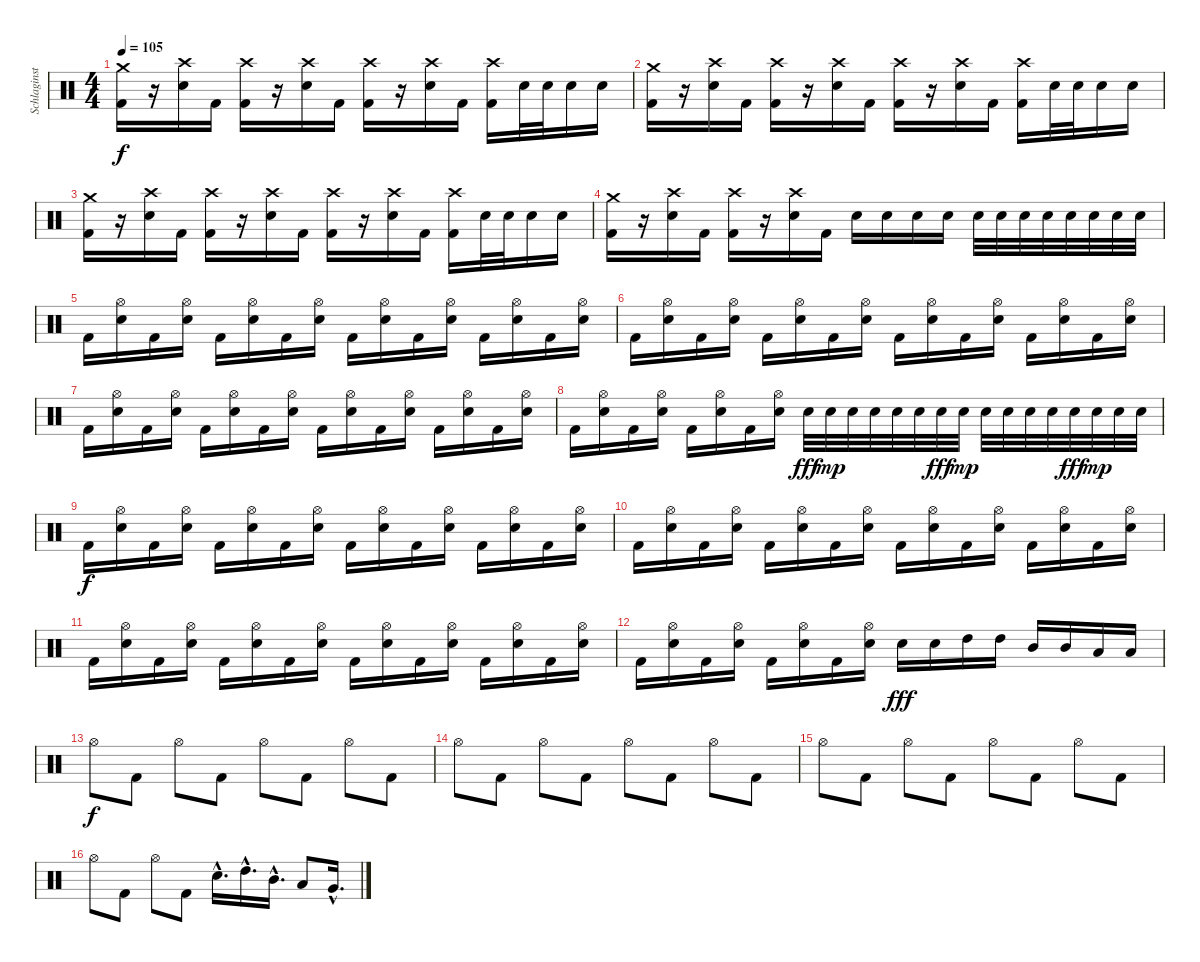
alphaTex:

\track ("Schlaginstrumente - Auswahl" "Schlaginst") {instrument percussion}
\staff {score}
\articulation defaults
\ts (4 4)
\tempo 105
\clef neutral
\ks c
("Crash medium (hit)" "Kick (hit) 2").16{dy f} r.16 ("Crash high (hit)" "Electric Snare (hit)").16 "Kick (hit) 2".16 ("Crash high (hit)" "Kick (hit) 2").16 r.16 ("Crash high (hit)" "Electric Snare (hit)").16 "Kick (hit) 2".16 ("Crash high (hit)" "Kick (hit) 2").16 r.16 ("Crash high (hit)" "Electric Snare (hit)").16 "Kick (hit) 2".16 ("Crash high (hit)" "Kick (hit) 2").16 "Electric Snare (hit)".32 "Electric Snare (hit)".32 "Electric Snare (hit)".16 "Electric Snare (hit)".16 |
("Crash medium (hit)" "Kick (hit) 2").16 r.16 ("Crash high (hit)" "Electric Snare (hit)").16 "Kick (hit) 2".16 ("Crash high (hit)" "Kick (hit) 2").16 r.16 ("Crash high (hit)" "Electric Snare (hit)").16 "Kick (hit) 2".16 ("Crash high (hit)" "Kick (hit) 2").16 r.16 ("Crash high (hit)" "Electric Snare (hit)").16 "Kick (hit) 2".16 ("Crash high (hit)" "Kick (hit) 2").16 "Electric Snare (hit)".32 "Electric Snare (hit)".32 "Electric Snare (hit)".16 "Electric Snare (hit)".16 |
("Crash medium (hit)" "Kick (hit) 2").16 r.16 ("Crash high (hit)" "Electric Snare (hit)").16 "Kick (hit) 2".16 ("Crash high (hit)" "Kick (hit) 2").16 r.16 ("Crash high (hit)" "Electric Snare (hit)").16 "Kick (hit) 2".16 ("Crash high (hit)" "Kick (hit) 2").16 r.16 ("Crash high (hit)" "Electric Snare (hit)").16 "Kick (hit) 2".16 ("Crash high (hit)" "Kick (hit) 2").16 "Electric Snare (hit)".32 "Electric Snare (hit)".32 "Electric Snare (hit)".16 "Electric Snare (hit)".16 |
("Crash medium (hit)" "Kick (hit) 2").16 r.16 ("Crash high (hit)" "Electric Snare (hit)").16 "Kick (hit) 2".16 ("Crash high (hit)" "Kick (hit) 2").16 r.16 ("Crash high (hit)" "Electric Snare (hit)").16 "Kick (hit) 2".16 "Electric Snare (hit)".16 "Electric Snare (hit)".16 "Electric Snare (hit)".16 "Electric Snare (hit)".16 "Electric Snare (hit)".32 "Electric Snare (hit)".32 "Electric Snare (hit)".32 "Electric Snare (hit)".32 "Electric Snare (hit)".32 "Electric Snare (hit)".32 "Electric Snare (hit)".32 "Electric Snare (hit)".32 |
"Kick (hit) 2".16 ("Hi-Hat (open)" "Electric Snare (hit)").16 "Kick (hit) 2".16 ("Hi-Hat (open)" "Electric Snare (hit)").16 "Kick (hit) 2".16 ("Hi-Hat (open)" "Electric Snare (hit)").16 "Kick (hit) 2".16 ("Hi-Hat (open)" "Electric Snare (hit)").16 "Kick (hit) 2".16 ("Hi-Hat (open)" "Electric Snare (hit)").16 "Kick (hit) 2".16 ("Hi-Hat (open)" "Electric Snare (hit)").16 "Kick (hit) 2".16 ("Hi-Hat (open)" "Electric Snare (hit)").16 "Kick (hit) 2".16 ("Hi-Hat (open)" "Electric Snare (hit)").16 |
"Kick (hit) 2".16 ("Hi-Hat (open)" "Electric Snare (hit)").16 "Kick (hit) 2".16 ("Hi-Hat (open)" "Electric Snare (hit)").16 "Kick (hit) 2".16 ("Hi-Hat (open)" "Electric Snare (hit)").16 "Kick (hit) 2".16 ("Hi-Hat (open)" "Electric Snare (hit)").16 "Kick (hit) 2".16 ("Hi-Hat (open)" "Electric Snare (hit)").16 "Kick (hit) 2".16 ("Hi-Hat (open)" "Electric Snare (hit)").16 "Kick (hit) 2".16 ("Hi-Hat (open)" "Electric Snare (hit)").16 "Kick (hit) 2".16 ("Hi-Hat (open)" "Electric Snare (hit)").16 |
"Kick (hit) 2".16 ("Hi-Hat (open)" "Electric Snare (hit)").16 "Kick (hit) 2".16 ("Hi-Hat (open)" "Electric Snare (hit)").16 "Kick (hit) 2".16 ("Hi-Hat (open)" "Electric Snare (hit)").16 "Kick (hit) 2".16 ("Hi-Hat (open)" "Electric Snare (hit)").16 "Kick (hit) 2".16 ("Hi-Hat (open)" "Electric Snare (hit)").16 "Kick (hit) 2".16 ("Hi-Hat (open)" "Electric Snare (hit)").16 "Kick (hit) 2".16 ("Hi-Hat (open)" "Electric Snare (hit)").16 "Kick (hit) 2".16 ("Hi-Hat (open)" "Electric Snare (hit)").16 |
"Kick (hit) 2".16 ("Hi-Hat (open)" "Electric Snare (hit)").16 "Kick (hit) 2".16 ("Hi-Hat (open)" "Electric Snare (hit)").16 "Kick (hit) 2".16 ("Hi-Hat (open)" "Electric Snare (hit)").16 "Kick (hit) 2".16 ("Hi-Hat (open)" "Electric Snare (hit)").16 "Electric Snare (hit)".32{dy fff} "Electric Snare (hit)".32{dy mp} "Electric Snare (hit)".32 "Electric Snare (hit)".32 "Electric Snare (hit)".32 "Electric Snare (hit)".32 "Electric Snare (hit)".32{dy fff} "Electric Snare (hit)".32{dy mp} "Electric Snare (hit)".32 "Electric Snare (hit)".32 "Electric Snare (hit)".32 "Electric Snare (hit)".32 "Electric Snare (hit)".32{dy fff} "Electric Snare (hit)".32{dy mp} "Electric Snare (hit)".32 "Electric Snare (hit)".32 |
"Kick (hit) 2".16{dy f} ("Hi-Hat (open)" "Electric Snare (hit)").16 "Kick (hit) 2".16 ("Hi-Hat (open)" "Electric Snare (hit)").16 "Kick (hit) 2".16 ("Hi-Hat (open)" "Electric Snare (hit)").16 "Kick (hit) 2".16 ("Hi-Hat (open)" "Electric Snare (hit)").16 "Kick (hit) 2".16 ("Hi-Hat (open)" "Electric Snare (hit)").16 "Kick (hit) 2".16 ("Hi-Hat (open)" "Electric Snare (hit)").16 "Kick (hit) 2".16 ("Hi-Hat (open)" "Electric Snare (hit)").16 "Kick (hit) 2".16 ("Hi-Hat (open)" "Electric Snare (hit)").16 |
"Kick (hit) 2".16 ("Hi-Hat (open)" "Electric Snare (hit)").16 "Kick (hit) 2".16 ("Hi-Hat (open)" "Electric Snare (hit)").16 "Kick (hit) 2".16 ("Hi-Hat (open)" "Electric Snare (hit)").16 "Kick (hit) 2".16 ("Hi-Hat (open)" "Electric Snare (hit)").16 "Kick (hit) 2".16 ("Hi-Hat (open)" "Electric Snare (hit)").16 "Kick (hit) 2".16 ("Hi-Hat (open)" "Electric Snare (hit)").16 "Kick (hit) 2".16 ("Hi-Hat (open)" "Electric Snare (hit)").16 "Kick (hit) 2".16 ("Hi-Hat (open)" "Electric Snare (hit)").16 |
"Kick (hit) 2".16 ("Hi-Hat (open)" "Electric Snare (hit)").16 "Kick (hit) 2".16 ("Hi-Hat (open)" "Electric Snare (hit)").16 "Kick (hit) 2".16 ("Hi-Hat (open)" "Electric Snare (hit)").16 "Kick (hit) 2".16 ("Hi-Hat (open)" "Electric Snare (hit)").16 "Kick (hit) 2".16 ("Hi-Hat (open)" "Electric Snare (hit)").16 "Kick (hit) 2".16 ("Hi-Hat (open)" "Electric Snare (hit)").16 "Kick (hit) 2".16 ("Hi-Hat (open)" "Electric Snare (hit)").16 "Kick (hit) 2".16 ("Hi-Hat (open)" "Electric Snare (hit)").16 |
"Kick (hit) 2".16 ("Hi-Hat (open)" "Electric Snare (hit)").16 "Kick (hit) 2".16 ("Hi-Hat (open)" "Electric Snare (hit)").16 "Kick (hit) 2".16 ("Hi-Hat (open)" "Electric Snare (hit)").16 "Kick (hit) 2".16 ("Hi-Hat (open)" "Electric Snare (hit)").16 "Electric Snare (hit)".16{dy fff} "Electric Snare (hit)".16 "High Tom (hit)".16 "High Tom (hit)".16 "Mid Tom (hit)".16 "Mid Tom (hit)".16 "Low Tom (hit)".16 "Low Tom (hit)".16 |
"Hi-Hat (open)".8{dy f} "Kick (hit) 2".8 "Hi-Hat (open)".8 "Kick (hit) 2".8 "Hi-Hat (open)".8 "Kick (hit) 2".8 "Hi-Hat (open)".8 "Kick (hit) 2".8 |
"Hi-Hat (open)".8 "Kick (hit) 2".8 "Hi-Hat (open)".8 "Kick (hit) 2".8 "Hi-Hat (open)".8 "Kick (hit) 2".8 "Hi-Hat (open)".8 "Kick (hit) 2".8 |
"Hi-Hat (open)".8 "Kick (hit) 2".8 "Hi-Hat (open)".8 "Kick (hit) 2".8 "Hi-Hat (open)".8 "Kick (hit) 2".8 "Hi-Hat (open)".8 "Kick (hit) 2".8 |
"Hi-Hat (open)".8 "Kick (hit) 2".8 "Hi-Hat (open)".8 "Kick (hit) 2".8 "Electric Snare (hit)"{hac}.16{d} "High Tom (hit)"{hac}.16{d} "Mid Tom (hit)"{hac}.16{d} "Low Tom (hit)".8 "Very Low Tom (hit)"{hac}.16{d}
